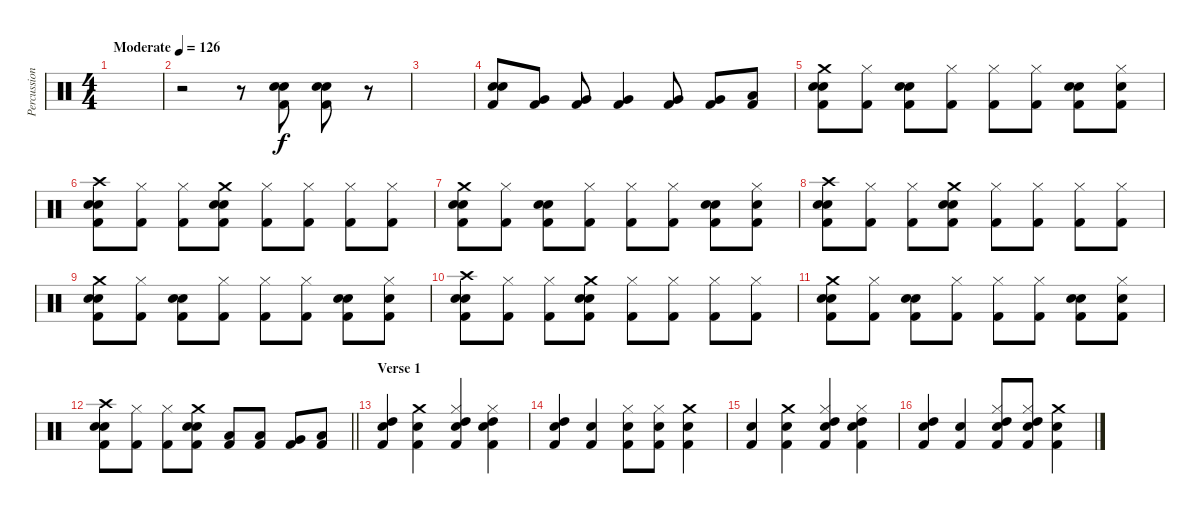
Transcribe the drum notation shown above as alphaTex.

\track ("Percussion" "Percussion") {instrument percussion}
\staff {score}
\articulation defaults
\ts (4 4)
\tempo (126 "Moderate")
\clef neutral
\ks c
|
r.2 r.8 ("Snare (hit) 2" "Kick (hit) 2" "Electric Snare (hit)").8 ("Snare (hit) 2" "Kick (hit) 2" "Electric Snare (hit)").8 r.8 |
|
("Snare (hit) 2" "Electric Snare (hit)" "Kick (hit) 2").8 ("Very Low Tom (hit)" "Kick (hit) 2").8 ("Very Low Tom (hit)" "Kick (hit) 2").8 ("Very Low Tom (hit)" "Kick (hit) 2").4 ("Very Low Tom (hit)" "Kick (hit) 2").8 ("Very Low Tom (hit)" "Kick (hit) 2").8 ("Low Floor Tom (hit)" "Kick (hit) 2").8 |
("Kick (hit) 2" "Crash medium (hit)" "Snare (hit) 2" "Electric Snare (hit)").8 ("Hi-Hat (closed)" "Kick (hit) 2").8 ("Kick (hit) 2" "Snare (hit) 2" "Electric Snare (hit)").8 ("Hi-Hat (closed)" "Kick (hit) 2").8 ("Hi-Hat (closed)" "Kick (hit) 2").8 ("Hi-Hat (closed)" "Kick (hit) 2").8 ("Kick (hit) 2" "Snare (hit) 2" "Electric Snare (hit)").8 ("Snare (hit) 2" "Hi-Hat (closed)" "Kick (hit) 2").8 |
("Kick (hit) 2" "Crash high (hit)" "Snare (hit) 2" "Electric Snare (hit)").8 ("Hi-Hat (closed)" "Kick (hit) 2").8 ("Hi-Hat (closed)" "Kick (hit) 2").8 ("Kick (hit) 2" "Crash medium (hit)" "Snare (hit) 2" "Electric Snare (hit)").8 ("Hi-Hat (closed)" "Kick (hit) 2").8 ("Hi-Hat (closed)" "Kick (hit) 2").8 ("Hi-Hat (closed)" "Kick (hit) 2").8 ("Hi-Hat (closed)" "Kick (hit) 2").8 |
("Kick (hit) 2" "Crash medium (hit)" "Snare (hit) 2" "Electric Snare (hit)").8 ("Hi-Hat (closed)" "Kick (hit) 2").8 ("Kick (hit) 2" "Snare (hit) 2" "Electric Snare (hit)").8 ("Hi-Hat (closed)" "Kick (hit) 2").8 ("Hi-Hat (closed)" "Kick (hit) 2").8 ("Hi-Hat (closed)" "Kick (hit) 2").8 ("Kick (hit) 2" "Snare (hit) 2" "Electric Snare (hit)").8 ("Snare (hit) 2" "Hi-Hat (closed)" "Kick (hit) 2").8 |
("Kick (hit) 2" "Crash high (hit)" "Snare (hit) 2" "Electric Snare (hit)").8 ("Hi-Hat (closed)" "Kick (hit) 2").8 ("Hi-Hat (closed)" "Kick (hit) 2").8 ("Kick (hit) 2" "Crash medium (hit)" "Snare (hit) 2" "Electric Snare (hit)").8 ("Hi-Hat (closed)" "Kick (hit) 2").8 ("Hi-Hat (closed)" "Kick (hit) 2").8 ("Hi-Hat (closed)" "Kick (hit) 2").8 ("Hi-Hat (closed)" "Kick (hit) 2").8 |
("Kick (hit) 2" "Crash medium (hit)" "Snare (hit) 2" "Electric Snare (hit)").8 ("Hi-Hat (closed)" "Kick (hit) 2").8 ("Kick (hit) 2" "Snare (hit) 2" "Electric Snare (hit)").8 ("Hi-Hat (closed)" "Kick (hit) 2").8 ("Hi-Hat (closed)" "Kick (hit) 2").8 ("Hi-Hat (closed)" "Kick (hit) 2").8 ("Kick (hit) 2" "Snare (hit) 2" "Electric Snare (hit)").8 ("Snare (hit) 2" "Hi-Hat (closed)" "Kick (hit) 2").8 |
("Kick (hit) 2" "Crash high (hit)" "Snare (hit) 2" "Electric Snare (hit)").8 ("Hi-Hat (closed)" "Kick (hit) 2").8 ("Hi-Hat (closed)" "Kick (hit) 2").8 ("Kick (hit) 2" "Crash medium (hit)" "Snare (hit) 2" "Electric Snare (hit)").8 ("Hi-Hat (closed)" "Kick (hit) 2").8 ("Hi-Hat (closed)" "Kick (hit) 2").8 ("Hi-Hat (closed)" "Kick (hit) 2").8 ("Hi-Hat (closed)" "Kick (hit) 2").8 |
("Kick (hit) 2" "Crash medium (hit)" "Snare (hit) 2" "Electric Snare (hit)").8 ("Hi-Hat (closed)" "Kick (hit) 2").8 ("Kick (hit) 2" "Snare (hit) 2" "Electric Snare (hit)").8 ("Hi-Hat (closed)" "Kick (hit) 2").8 ("Hi-Hat (closed)" "Kick (hit) 2").8 ("Hi-Hat (closed)" "Kick (hit) 2").8 ("Kick (hit) 2" "Snare (hit) 2" "Electric Snare (hit)").8 ("Snare (hit) 2" "Hi-Hat (closed)" "Kick (hit) 2").8 |
\barLineRight lightlight
("Kick (hit) 2" "Crash high (hit)" "Snare (hit) 2" "Electric Snare (hit)").8 ("Hi-Hat (closed)" "Kick (hit) 2").8 ("Hi-Hat (closed)" "Kick (hit) 2").8 ("Kick (hit) 2" "Crash medium (hit)" "Snare (hit) 2" "Electric Snare (hit)").8 ("Low Tom (hit)" "Kick (hit) 2").8 ("Low Tom (hit)" "Kick (hit) 2").8 ("Very Low Tom (hit)" "Kick (hit) 2").8 ("Low Floor Tom (hit)" "Kick (hit) 2").8 |
\section ("" "Verse 1")
("High Tom (hit)" "Electric Snare (hit)" "Kick (hit) 2").4 ("Crash medium (hit)" "Snare (hit) 2" "Kick (hit) 2").4 ("High Tom (hit)" "Hi-Hat (closed)" "Electric Snare (hit)" "Kick (hit) 2").4 ("High Tom (hit)" "Hi-Hat (closed)" "Snare (hit) 2" "Kick (hit) 2").4 |
("High Tom (hit)" "Electric Snare (hit)" "Kick (hit) 2").4 ("Snare (hit) 2" "Kick (hit) 2").4 ("Hi-Hat (closed)" "Electric Snare (hit)" "Kick (hit) 2").8 ("Hi-Hat (closed)" "Snare (hit) 2" "Kick (hit) 2").8 ("Crash medium (hit)" "Snare (hit) 2" "Kick (hit) 2").4 |
("Electric Snare (hit)" "Kick (hit) 2").4 ("Crash medium (hit)" "Snare (hit) 2" "Kick (hit) 2").4 ("High Tom (hit)" "Hi-Hat (closed)" "Electric Snare (hit)" "Kick (hit) 2").4 ("High Tom (hit)" "Hi-Hat (closed)" "Snare (hit) 2" "Kick (hit) 2").4 |
("High Tom (hit)" "Electric Snare (hit)" "Kick (hit) 2").4 ("Snare (hit) 2" "Kick (hit) 2").4 ("High Tom (hit)" "Hi-Hat (closed)" "Electric Snare (hit)" "Kick (hit) 2").8 ("High Tom (hit)" "Hi-Hat (closed)" "Snare (hit) 2" "Kick (hit) 2").8 ("Crash medium (hit)" "Snare (hit) 2" "Kick (hit) 2").4
